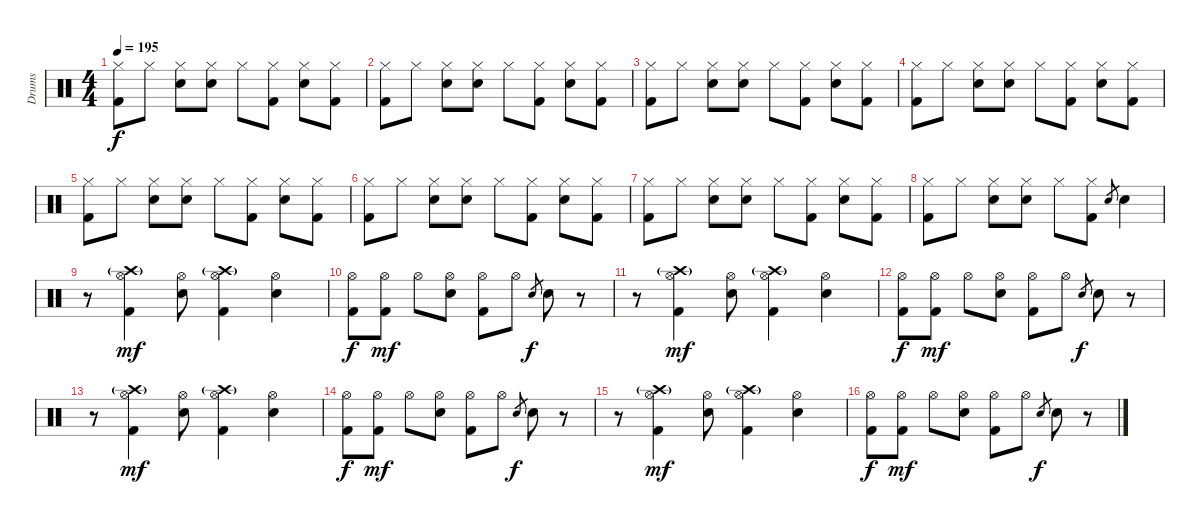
\track ("Drums" "Drums") {instrument percussion}
\staff {score}
\articulation defaults
\ts (4 4)
\tempo 195
\clef neutral
\ks c
("Hi-Hat (closed)" "Kick (hit) 2").8{dy f} "Hi-Hat (closed)".8 ("Hi-Hat (closed)" "Electric Snare (hit)").8 ("Hi-Hat (closed)" "Electric Snare (hit)").8 "Hi-Hat (closed)".8 ("Hi-Hat (closed)" "Kick (hit) 2").8 ("Hi-Hat (closed)" "Electric Snare (hit)").8 ("Hi-Hat (closed)" "Kick (hit) 2").8 |
("Hi-Hat (closed)" "Kick (hit) 2").8 "Hi-Hat (closed)".8 ("Hi-Hat (closed)" "Electric Snare (hit)").8 ("Hi-Hat (closed)" "Electric Snare (hit)").8 "Hi-Hat (closed)".8 ("Hi-Hat (closed)" "Kick (hit) 2").8 ("Hi-Hat (closed)" "Electric Snare (hit)").8 ("Hi-Hat (closed)" "Kick (hit) 2").8 |
("Hi-Hat (closed)" "Kick (hit) 2").8 "Hi-Hat (closed)".8 ("Hi-Hat (closed)" "Electric Snare (hit)").8 ("Hi-Hat (closed)" "Electric Snare (hit)").8 "Hi-Hat (closed)".8 ("Hi-Hat (closed)" "Kick (hit) 2").8 ("Hi-Hat (closed)" "Electric Snare (hit)").8 ("Hi-Hat (closed)" "Kick (hit) 2").8 |
("Hi-Hat (closed)" "Kick (hit) 2").8 "Hi-Hat (closed)".8 ("Hi-Hat (closed)" "Electric Snare (hit)").8 ("Hi-Hat (closed)" "Electric Snare (hit)").8 "Hi-Hat (closed)".8 ("Hi-Hat (closed)" "Kick (hit) 2").8 ("Hi-Hat (closed)" "Electric Snare (hit)").8 ("Hi-Hat (closed)" "Kick (hit) 2").8 |
("Hi-Hat (closed)" "Kick (hit) 2").8 "Hi-Hat (closed)".8 ("Hi-Hat (closed)" "Electric Snare (hit)").8 ("Hi-Hat (closed)" "Electric Snare (hit)").8 "Hi-Hat (closed)".8 ("Hi-Hat (closed)" "Kick (hit) 2").8 ("Hi-Hat (closed)" "Electric Snare (hit)").8 ("Hi-Hat (closed)" "Kick (hit) 2").8 |
("Hi-Hat (closed)" "Kick (hit) 2").8 "Hi-Hat (closed)".8 ("Hi-Hat (closed)" "Electric Snare (hit)").8 ("Hi-Hat (closed)" "Electric Snare (hit)").8 "Hi-Hat (closed)".8 ("Hi-Hat (closed)" "Kick (hit) 2").8 ("Hi-Hat (closed)" "Electric Snare (hit)").8 ("Hi-Hat (closed)" "Kick (hit) 2").8 |
("Hi-Hat (closed)" "Kick (hit) 2").8 "Hi-Hat (closed)".8 ("Hi-Hat (closed)" "Electric Snare (hit)").8 ("Hi-Hat (closed)" "Electric Snare (hit)").8 "Hi-Hat (closed)".8 ("Hi-Hat (closed)" "Kick (hit) 2").8 ("Hi-Hat (closed)" "Electric Snare (hit)").8 ("Hi-Hat (closed)" "Kick (hit) 2").8 |
("Hi-Hat (closed)" "Kick (hit) 2").8 "Hi-Hat (closed)".8 ("Hi-Hat (closed)" "Electric Snare (hit)").8 ("Hi-Hat (closed)" "Electric Snare (hit)").8 "Hi-Hat (closed)".8 ("Hi-Hat (closed)" "Kick (hit) 2").8 "Electric Snare (hit)".8{gr} "Electric Snare (hit)".4 |
r.8 ("Crash high (hit)"{g} "Hi-Hat (open)" "Kick (hit) 2").4{dy mf} ("Hi-Hat (open)" "Electric Snare (hit)").8 ("Crash high (hit)"{g} "Hi-Hat (open)" "Kick (hit) 2").4 ("Hi-Hat (open)" "Electric Snare (hit)").4 |
("Hi-Hat (open)" "Kick (hit) 2").8{dy f} ("Hi-Hat (open)" "Kick (hit) 2").8{dy mf} "Hi-Hat (open)".8 ("Hi-Hat (open)" "Electric Snare (hit)").8 ("Hi-Hat (open)" "Kick (hit) 2").8 "Hi-Hat (open)".8 "Electric Snare (hit)".8{gr dy f} "Electric Snare (hit)".8 r.8 |
r.8 ("Crash high (hit)"{g} "Hi-Hat (open)" "Kick (hit) 2").4{dy mf} ("Hi-Hat (open)" "Electric Snare (hit)").8 ("Crash high (hit)"{g} "Hi-Hat (open)" "Kick (hit) 2").4 ("Hi-Hat (open)" "Electric Snare (hit)").4 |
("Hi-Hat (open)" "Kick (hit) 2").8{dy f} ("Hi-Hat (open)" "Kick (hit) 2").8{dy mf} "Hi-Hat (open)".8 ("Hi-Hat (open)" "Electric Snare (hit)").8 ("Hi-Hat (open)" "Kick (hit) 2").8 "Hi-Hat (open)".8 "Electric Snare (hit)".8{gr dy f} "Electric Snare (hit)".8 r.8 |
r.8 ("Crash high (hit)"{g} "Hi-Hat (open)" "Kick (hit) 2").4{dy mf} ("Hi-Hat (open)" "Electric Snare (hit)").8 ("Crash high (hit)"{g} "Hi-Hat (open)" "Kick (hit) 2").4 ("Hi-Hat (open)" "Electric Snare (hit)").4 |
("Hi-Hat (open)" "Kick (hit) 2").8{dy f} ("Hi-Hat (open)" "Kick (hit) 2").8{dy mf} "Hi-Hat (open)".8 ("Hi-Hat (open)" "Electric Snare (hit)").8 ("Hi-Hat (open)" "Kick (hit) 2").8 "Hi-Hat (open)".8 "Electric Snare (hit)".8{gr dy f} "Electric Snare (hit)".8 r.8 |
r.8 ("Crash high (hit)"{g} "Hi-Hat (open)" "Kick (hit) 2").4{dy mf} ("Hi-Hat (open)" "Electric Snare (hit)").8 ("Crash high (hit)"{g} "Hi-Hat (open)" "Kick (hit) 2").4 ("Hi-Hat (open)" "Electric Snare (hit)").4 |
("Hi-Hat (open)" "Kick (hit) 2").8{dy f} ("Hi-Hat (open)" "Kick (hit) 2").8{dy mf} "Hi-Hat (open)".8 ("Hi-Hat (open)" "Electric Snare (hit)").8 ("Hi-Hat (open)" "Kick (hit) 2").8 "Hi-Hat (open)".8 "Electric Snare (hit)".8{gr dy f} "Electric Snare (hit)".8 r.8
